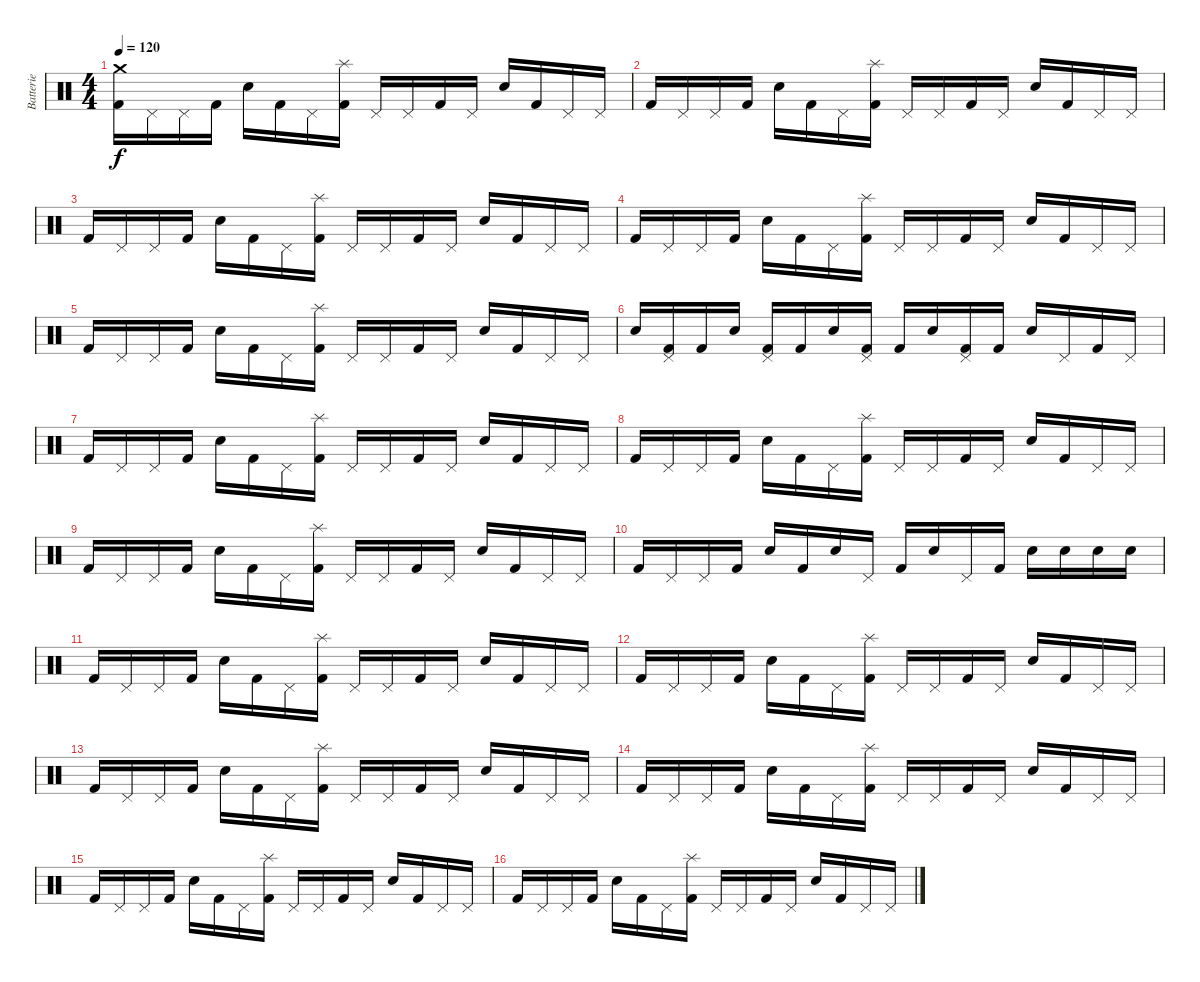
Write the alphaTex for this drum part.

\track ("Batterie" "Batterie") {instrument percussion}
\staff {score}
\articulation defaults
\ts (4 4)
\tempo 120
\clef neutral
\ks c
("Crash medium (hit)" "Kick (hit) 2").16{dy f} "Pedal Hi-Hat (hit)".16 "Pedal Hi-Hat (hit)".16 "Kick (hit) 2".16 "Electric Snare (hit)".16 "Kick (hit) 2".16 "Pedal Hi-Hat (hit)".16 ("Splash (hit)" "Kick (hit) 2").16 "Pedal Hi-Hat (hit)".16 "Pedal Hi-Hat (hit)".16 "Kick (hit) 2".16 "Pedal Hi-Hat (hit)".16 "Electric Snare (hit)".16 "Kick (hit) 2".16 "Pedal Hi-Hat (hit)".16 "Pedal Hi-Hat (hit)".16 |
"Kick (hit) 2".16 "Pedal Hi-Hat (hit)".16 "Pedal Hi-Hat (hit)".16 "Kick (hit) 2".16 "Electric Snare (hit)".16 "Kick (hit) 2".16 "Pedal Hi-Hat (hit)".16 ("Splash (hit)" "Kick (hit) 2").16 "Pedal Hi-Hat (hit)".16 "Pedal Hi-Hat (hit)".16 "Kick (hit) 2".16 "Pedal Hi-Hat (hit)".16 "Electric Snare (hit)".16 "Kick (hit) 2".16 "Pedal Hi-Hat (hit)".16 "Pedal Hi-Hat (hit)".16 |
"Kick (hit) 2".16 "Pedal Hi-Hat (hit)".16 "Pedal Hi-Hat (hit)".16 "Kick (hit) 2".16 "Electric Snare (hit)".16 "Kick (hit) 2".16 "Pedal Hi-Hat (hit)".16 ("Splash (hit)" "Kick (hit) 2").16 "Pedal Hi-Hat (hit)".16 "Pedal Hi-Hat (hit)".16 "Kick (hit) 2".16 "Pedal Hi-Hat (hit)".16 "Electric Snare (hit)".16 "Kick (hit) 2".16 "Pedal Hi-Hat (hit)".16 "Pedal Hi-Hat (hit)".16 |
"Kick (hit) 2".16 "Pedal Hi-Hat (hit)".16 "Pedal Hi-Hat (hit)".16 "Kick (hit) 2".16 "Electric Snare (hit)".16 "Kick (hit) 2".16 "Pedal Hi-Hat (hit)".16 ("Splash (hit)" "Kick (hit) 2").16 "Pedal Hi-Hat (hit)".16 "Pedal Hi-Hat (hit)".16 "Kick (hit) 2".16 "Pedal Hi-Hat (hit)".16 "Electric Snare (hit)".16 "Kick (hit) 2".16 "Pedal Hi-Hat (hit)".16 "Pedal Hi-Hat (hit)".16 |
"Kick (hit) 2".16 "Pedal Hi-Hat (hit)".16 "Pedal Hi-Hat (hit)".16 "Kick (hit) 2".16 "Electric Snare (hit)".16 "Kick (hit) 2".16 "Pedal Hi-Hat (hit)".16 ("Splash (hit)" "Kick (hit) 2").16 "Pedal Hi-Hat (hit)".16 "Pedal Hi-Hat (hit)".16 "Kick (hit) 2".16 "Pedal Hi-Hat (hit)".16 "Electric Snare (hit)".16 "Kick (hit) 2".16 "Pedal Hi-Hat (hit)".16 "Pedal Hi-Hat (hit)".16 |
"Electric Snare (hit)".16 ("Pedal Hi-Hat (hit)" "Kick (hit) 2").16 "Kick (hit) 2".16 "Electric Snare (hit)".16 ("Pedal Hi-Hat (hit)" "Kick (hit) 2").16 "Kick (hit) 2".16 "Electric Snare (hit)".16 ("Pedal Hi-Hat (hit)" "Kick (hit) 2").16 "Kick (hit) 2".16 "Electric Snare (hit)".16 ("Pedal Hi-Hat (hit)" "Kick (hit) 2").16 "Kick (hit) 2".16 "Electric Snare (hit)".16 "Pedal Hi-Hat (hit)".16 "Kick (hit) 2".16 "Pedal Hi-Hat (hit)".16 |
"Kick (hit) 2".16 "Pedal Hi-Hat (hit)".16 "Pedal Hi-Hat (hit)".16 "Kick (hit) 2".16 "Electric Snare (hit)".16 "Kick (hit) 2".16 "Pedal Hi-Hat (hit)".16 ("Splash (hit)" "Kick (hit) 2").16 "Pedal Hi-Hat (hit)".16 "Pedal Hi-Hat (hit)".16 "Kick (hit) 2".16 "Pedal Hi-Hat (hit)".16 "Electric Snare (hit)".16 "Kick (hit) 2".16 "Pedal Hi-Hat (hit)".16 "Pedal Hi-Hat (hit)".16 |
"Kick (hit) 2".16 "Pedal Hi-Hat (hit)".16 "Pedal Hi-Hat (hit)".16 "Kick (hit) 2".16 "Electric Snare (hit)".16 "Kick (hit) 2".16 "Pedal Hi-Hat (hit)".16 ("Splash (hit)" "Kick (hit) 2").16 "Pedal Hi-Hat (hit)".16 "Pedal Hi-Hat (hit)".16 "Kick (hit) 2".16 "Pedal Hi-Hat (hit)".16 "Electric Snare (hit)".16 "Kick (hit) 2".16 "Pedal Hi-Hat (hit)".16 "Pedal Hi-Hat (hit)".16 |
"Kick (hit) 2".16 "Pedal Hi-Hat (hit)".16 "Pedal Hi-Hat (hit)".16 "Kick (hit) 2".16 "Electric Snare (hit)".16 "Kick (hit) 2".16 "Pedal Hi-Hat (hit)".16 ("Splash (hit)" "Kick (hit) 2").16 "Pedal Hi-Hat (hit)".16 "Pedal Hi-Hat (hit)".16 "Kick (hit) 2".16 "Pedal Hi-Hat (hit)".16 "Electric Snare (hit)".16 "Kick (hit) 2".16 "Pedal Hi-Hat (hit)".16 "Pedal Hi-Hat (hit)".16 |
"Kick (hit) 2".16 "Pedal Hi-Hat (hit)".16 "Pedal Hi-Hat (hit)".16 "Kick (hit) 2".16 "Electric Snare (hit)".16 "Kick (hit) 2".16 "Electric Snare (hit)".16 "Pedal Hi-Hat (hit)".16 "Kick (hit) 2".16 "Electric Snare (hit)".16 "Pedal Hi-Hat (hit)".16 "Kick (hit) 2".16 "Electric Snare (hit)".16 "Electric Snare (hit)".16 "Electric Snare (hit)".16 "Electric Snare (hit)".16 |
"Kick (hit) 2".16 "Pedal Hi-Hat (hit)".16 "Pedal Hi-Hat (hit)".16 "Kick (hit) 2".16 "Electric Snare (hit)".16 "Kick (hit) 2".16 "Pedal Hi-Hat (hit)".16 ("Splash (hit)" "Kick (hit) 2").16 "Pedal Hi-Hat (hit)".16 "Pedal Hi-Hat (hit)".16 "Kick (hit) 2".16 "Pedal Hi-Hat (hit)".16 "Electric Snare (hit)".16 "Kick (hit) 2".16 "Pedal Hi-Hat (hit)".16 "Pedal Hi-Hat (hit)".16 |
"Kick (hit) 2".16 "Pedal Hi-Hat (hit)".16 "Pedal Hi-Hat (hit)".16 "Kick (hit) 2".16 "Electric Snare (hit)".16 "Kick (hit) 2".16 "Pedal Hi-Hat (hit)".16 ("Splash (hit)" "Kick (hit) 2").16 "Pedal Hi-Hat (hit)".16 "Pedal Hi-Hat (hit)".16 "Kick (hit) 2".16 "Pedal Hi-Hat (hit)".16 "Electric Snare (hit)".16 "Kick (hit) 2".16 "Pedal Hi-Hat (hit)".16 "Pedal Hi-Hat (hit)".16 |
"Kick (hit) 2".16 "Pedal Hi-Hat (hit)".16 "Pedal Hi-Hat (hit)".16 "Kick (hit) 2".16 "Electric Snare (hit)".16 "Kick (hit) 2".16 "Pedal Hi-Hat (hit)".16 ("Splash (hit)" "Kick (hit) 2").16 "Pedal Hi-Hat (hit)".16 "Pedal Hi-Hat (hit)".16 "Kick (hit) 2".16 "Pedal Hi-Hat (hit)".16 "Electric Snare (hit)".16 "Kick (hit) 2".16 "Pedal Hi-Hat (hit)".16 "Pedal Hi-Hat (hit)".16 |
"Kick (hit) 2".16 "Pedal Hi-Hat (hit)".16 "Pedal Hi-Hat (hit)".16 "Kick (hit) 2".16 "Electric Snare (hit)".16 "Kick (hit) 2".16 "Pedal Hi-Hat (hit)".16 ("Splash (hit)" "Kick (hit) 2").16 "Pedal Hi-Hat (hit)".16 "Pedal Hi-Hat (hit)".16 "Kick (hit) 2".16 "Pedal Hi-Hat (hit)".16 "Electric Snare (hit)".16 "Kick (hit) 2".16 "Pedal Hi-Hat (hit)".16 "Pedal Hi-Hat (hit)".16 |
"Kick (hit) 2".16 "Pedal Hi-Hat (hit)".16 "Pedal Hi-Hat (hit)".16 "Kick (hit) 2".16 "Electric Snare (hit)".16 "Kick (hit) 2".16 "Pedal Hi-Hat (hit)".16 ("Splash (hit)" "Kick (hit) 2").16 "Pedal Hi-Hat (hit)".16 "Pedal Hi-Hat (hit)".16 "Kick (hit) 2".16 "Pedal Hi-Hat (hit)".16 "Electric Snare (hit)".16 "Kick (hit) 2".16 "Pedal Hi-Hat (hit)".16 "Pedal Hi-Hat (hit)".16 |
"Kick (hit) 2".16 "Pedal Hi-Hat (hit)".16 "Pedal Hi-Hat (hit)".16 "Kick (hit) 2".16 "Electric Snare (hit)".16 "Kick (hit) 2".16 "Pedal Hi-Hat (hit)".16 ("Splash (hit)" "Kick (hit) 2").16 "Pedal Hi-Hat (hit)".16 "Pedal Hi-Hat (hit)".16 "Kick (hit) 2".16 "Pedal Hi-Hat (hit)".16 "Electric Snare (hit)".16 "Kick (hit) 2".16 "Pedal Hi-Hat (hit)".16 "Pedal Hi-Hat (hit)".16
